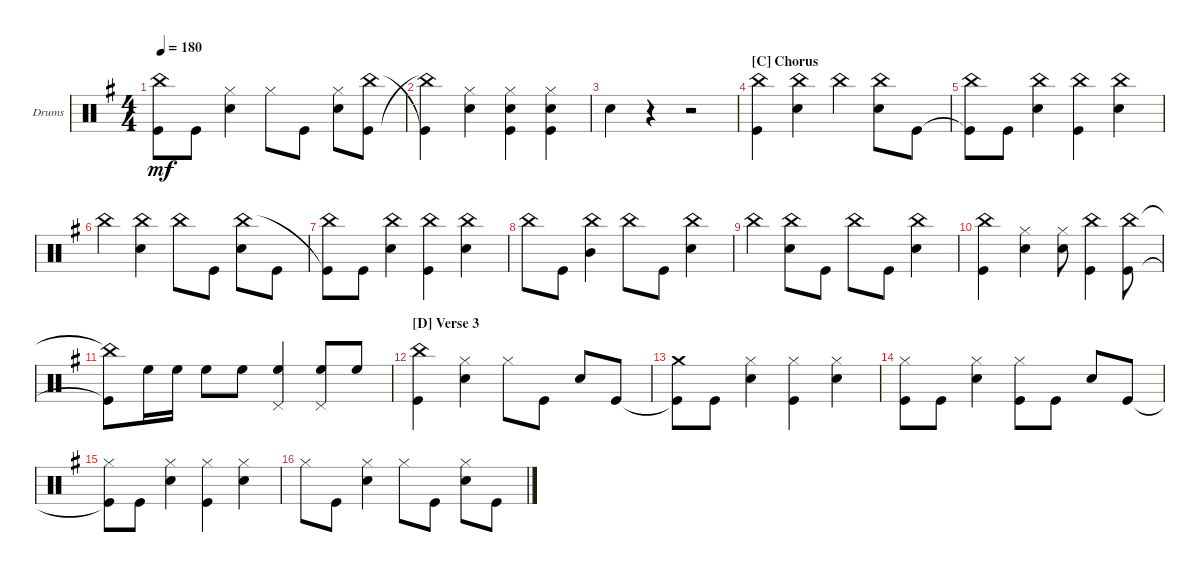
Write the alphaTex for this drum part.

\defaultSystemsLayout 4
\bracketExtendMode groupsimilarinstruments
\firstSystemTrackNameOrientation horizontal
\otherSystemsTrackNameOrientation horizontal
\track ("Drumkit" "Drums") {instrument percussion}
\staff {score}
\articulation defaults
\ts (4 4)
\tempo 180
\clef neutral
\scale
0.333333
\ks g
("China (hit)"{t} "Kick (hit)"{t}).8{dy mf} "Kick (hit)".8 ("Snare (hit) 2" "Hi-Hat (closed)").4 "Hi-Hat (closed)".8 "Kick (hit)".8 ("Snare (hit) 2" "Hi-Hat (closed)").8 ("Kick (hit)" "China (hit)").8 |
\scale
0.333333 ("China (hit)"{t} "Kick (hit)"{t}).4 ("Snare (hit) 2" "Hi-Hat (closed)").4 ("Snare (hit) 2" "Hi-Hat (closed)" "Kick (hit)").4 ("Kick (hit)" "Snare (hit) 2" "Hi-Hat (closed)").4 |
\scale
0.333333 "Snare (hit) 2".4 r.4 r.2 |
\section ("C" "Chorus")
\scale
0.333333 ("Kick (hit)" "China (hit)").4 ("Snare (hit) 2" "China (hit)").4 "China (hit)".4 ("Snare (hit) 2" "China (hit)").8 "Kick (hit)".8 |
\scale
0.333333 ("Kick (hit)"{t} "China (hit)").8 "Kick (hit)".8 ("Snare (hit) 2" "China (hit)").4 ("Kick (hit)" "China (hit)").4 ("Snare (hit) 2" "China (hit)").4 |
\scale
0.333333 "China (hit)".4 ("Snare (hit) 2" "China (hit)").4 "China (hit)".8 "Kick (hit)".8 ("Snare (hit) 2" "China (hit)").8 "Kick (hit)".8 |
\scale
0.333333 ("China (hit)" "Kick (hit)"{t}).8 "Kick (hit)".8 ("Snare (hit) 2" "China (hit)").4 ("China (hit)" "Kick (hit)").4 ("China (hit)" "Snare (hit) 2").4 |
\scale
0.333333 "China (hit)".8 "Kick (hit)".8 ("Mid Tom (hit)" "China (hit)").4 "China (hit)".8 "Kick (hit)".8 ("Snare (hit) 2" "China (hit)").4 |
\scale
0.333333 "China (hit)".4 ("China (hit)" "Snare (hit) 2").8 "Kick (hit)".8 "China (hit)".8 "Kick (hit)".8 ("Snare (hit) 2" "China (hit)").4 |
\scale
0.333333 ("Kick (hit)" "China (hit)").4 ("Hi-Hat (closed)" "Snare (hit) 2").4 ("Snare (hit) 2" "Hi-Hat (closed)").8 ("China (hit)" "Kick (hit)").4 ("China (hit)" "Kick (hit)").8 |
\scale
0.333333 ("China (hit)"{t} "Kick (hit)"{t}).8 "High Floor Tom (hit)".16 "High Floor Tom (hit)".16 "High Floor Tom (hit)".8 "High Floor Tom (hit)".8 ("High Floor Tom (hit)" "Pedal Hi-Hat (hit)").4 ("High Floor Tom (hit)" "Pedal Hi-Hat (hit)").8 "High Floor Tom (hit)".8 |
\section ("D" "Verse 3")
\scale
0.333333 ("Kick (hit)" "China (hit)").4 ("Snare (hit) 2" "Hi-Hat (closed)").4 "Hi-Hat (closed)".8 "Kick (hit)".8 "Snare (hit) 2".8 "Kick (hit)".8 |
\scale
0.333333 ("Kick (hit)"{t} "Crash medium (hit)").8 "Kick (hit)".8 ("Hi-Hat (closed)" "Snare (hit) 2").4 ("Kick (hit)" "Hi-Hat (closed)").4 ("Snare (hit) 2" "Hi-Hat (closed)").4 |
\scale
0.333333 ("Hi-Hat (closed)" "Kick (hit)").8 "Kick (hit)".8 ("Snare (hit) 2" "Hi-Hat (closed)").4 ("Kick (hit)" "Hi-Hat (closed)").8 "Kick (hit)".8 "Snare (hit) 2".8 "Kick (hit)".8 |
\scale
0.333333 ("Kick (hit)"{t} "Hi-Hat (closed)").8 "Kick (hit)".8 ("Snare (hit) 2" "Hi-Hat (closed)").4 ("Kick (hit)" "Hi-Hat (closed)").4 ("Snare (hit) 2" "Hi-Hat (closed)").4 |
\scale
0.333333 "Hi-Hat (closed)".8 "Kick (hit)".8 ("Snare (hit) 2" "Hi-Hat (closed)").4 "Hi-Hat (closed)".8 "Kick (hit)".8 ("Snare (hit) 2" "Hi-Hat (closed)").8 "Kick (hit)".8
